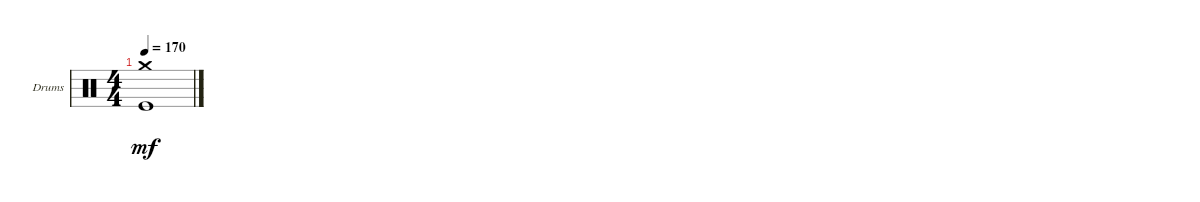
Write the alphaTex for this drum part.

\defaultSystemsLayout 4
\bracketExtendMode groupsimilarinstruments
\firstSystemTrackNameOrientation horizontal
\otherSystemsTrackNameOrientation horizontal
\track ("Drumkit" "Drums") {instrument percussion}
\staff {score}
\articulation defaults
\ts (4 4)
\tempo 170
\clef neutral
\ks c
("Kick (hit)" "Crash medium (hit)").1{dy mf}
